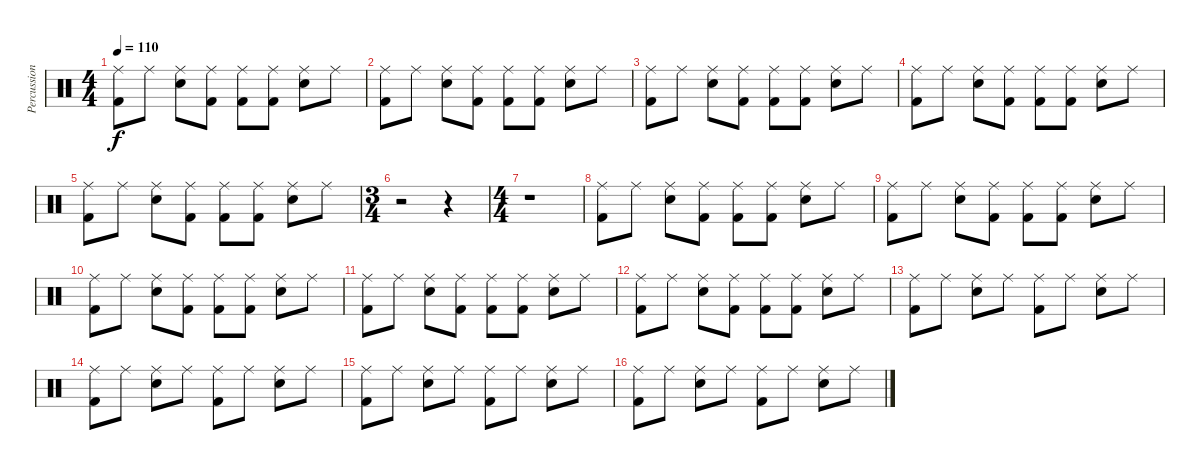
\track ("Percussions" "Percussion") {instrument percussion}
\staff {score}
\articulation defaults
\ts (4 4)
\tempo 110
\clef neutral
\ks c
("Ride (middle)" "Kick (hit) 2").8{dy f} "Ride (middle)".8 ("Ride (middle)" "Electric Snare (hit)").8 ("Ride (middle)" "Kick (hit) 2").8 ("Ride (middle)" "Kick (hit) 2").8 ("Ride (middle)" "Kick (hit) 2").8 ("Ride (middle)" "Electric Snare (hit)").8 "Ride (middle)".8 |
("Ride (middle)" "Kick (hit) 2").8 "Ride (middle)".8 ("Ride (middle)" "Electric Snare (hit)").8 ("Ride (middle)" "Kick (hit) 2").8 ("Ride (middle)" "Kick (hit) 2").8 ("Ride (middle)" "Kick (hit) 2").8 ("Ride (middle)" "Electric Snare (hit)").8 "Ride (middle)".8 |
("Ride (middle)" "Kick (hit) 2").8 "Ride (middle)".8 ("Ride (middle)" "Electric Snare (hit)").8 ("Ride (middle)" "Kick (hit) 2").8 ("Ride (middle)" "Kick (hit) 2").8 ("Ride (middle)" "Kick (hit) 2").8 ("Ride (middle)" "Electric Snare (hit)").8 "Ride (middle)".8 |
("Ride (middle)" "Kick (hit) 2").8 "Ride (middle)".8 ("Ride (middle)" "Electric Snare (hit)").8 ("Ride (middle)" "Kick (hit) 2").8 ("Ride (middle)" "Kick (hit) 2").8 ("Ride (middle)" "Kick (hit) 2").8 ("Ride (middle)" "Electric Snare (hit)").8 "Ride (middle)".8 |
("Ride (middle)" "Kick (hit) 2").8 "Ride (middle)".8 ("Ride (middle)" "Electric Snare (hit)").8 ("Ride (middle)" "Kick (hit) 2").8 ("Ride (middle)" "Kick (hit) 2").8 ("Ride (middle)" "Kick (hit) 2").8 ("Ride (middle)" "Electric Snare (hit)").8 "Ride (middle)".8 |
\ts (3 4)
r.2 r.4 |
\ts (4 4)
r.1 |
("Ride (middle)" "Kick (hit) 2").8 "Ride (middle)".8 ("Ride (middle)" "Electric Snare (hit)").8 ("Ride (middle)" "Kick (hit) 2").8 ("Ride (middle)" "Kick (hit) 2").8 ("Ride (middle)" "Kick (hit) 2").8 ("Ride (middle)" "Electric Snare (hit)").8 "Ride (middle)".8 |
("Ride (middle)" "Kick (hit) 2").8 "Ride (middle)".8 ("Ride (middle)" "Electric Snare (hit)").8 ("Ride (middle)" "Kick (hit) 2").8 ("Ride (middle)" "Kick (hit) 2").8 ("Ride (middle)" "Kick (hit) 2").8 ("Ride (middle)" "Electric Snare (hit)").8 "Ride (middle)".8 |
("Ride (middle)" "Kick (hit) 2").8 "Ride (middle)".8 ("Ride (middle)" "Electric Snare (hit)").8 ("Ride (middle)" "Kick (hit) 2").8 ("Ride (middle)" "Kick (hit) 2").8 ("Ride (middle)" "Kick (hit) 2").8 ("Ride (middle)" "Electric Snare (hit)").8 "Ride (middle)".8 |
("Ride (middle)" "Kick (hit) 2").8 "Ride (middle)".8 ("Ride (middle)" "Electric Snare (hit)").8 ("Ride (middle)" "Kick (hit) 2").8 ("Ride (middle)" "Kick (hit) 2").8 ("Ride (middle)" "Kick (hit) 2").8 ("Ride (middle)" "Electric Snare (hit)").8 "Ride (middle)".8 |
("Ride (middle)" "Kick (hit) 2").8 "Ride (middle)".8 ("Ride (middle)" "Electric Snare (hit)").8 ("Ride (middle)" "Kick (hit) 2").8 ("Ride (middle)" "Kick (hit) 2").8 ("Ride (middle)" "Kick (hit) 2").8 ("Ride (middle)" "Electric Snare (hit)").8 "Ride (middle)".8 |
("Ride (middle)" "Kick (hit) 2").8 "Ride (middle)".8 ("Ride (middle)" "Electric Snare (hit)").8 "Ride (middle)".8 ("Ride (middle)" "Kick (hit) 2").8 "Ride (middle)".8 ("Ride (middle)" "Electric Snare (hit)").8 "Ride (middle)".8 |
("Ride (middle)" "Kick (hit) 2").8 "Ride (middle)".8 ("Ride (middle)" "Electric Snare (hit)").8 "Ride (middle)".8 ("Ride (middle)" "Kick (hit) 2").8 "Ride (middle)".8 ("Ride (middle)" "Electric Snare (hit)").8 "Ride (middle)".8 |
("Ride (middle)" "Kick (hit) 2").8 "Ride (middle)".8 ("Ride (middle)" "Electric Snare (hit)").8 "Ride (middle)".8 ("Ride (middle)" "Kick (hit) 2").8 "Ride (middle)".8 ("Ride (middle)" "Electric Snare (hit)").8 "Ride (middle)".8 |
("Ride (middle)" "Kick (hit) 2").8 "Ride (middle)".8 ("Ride (middle)" "Electric Snare (hit)").8 "Ride (middle)".8 ("Ride (middle)" "Kick (hit) 2").8 "Ride (middle)".8 ("Ride (middle)" "Electric Snare (hit)").8 "Ride (middle)".8
